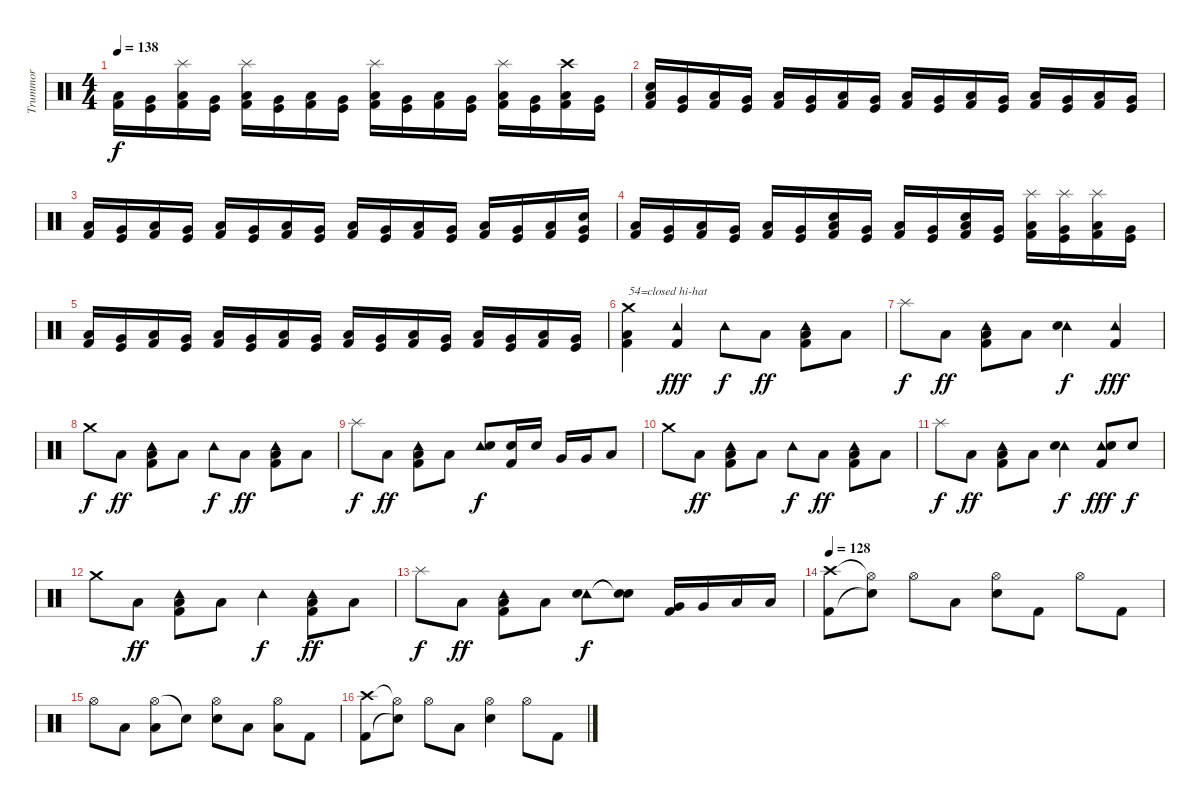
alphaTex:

\track ("Trummor" "Trummor") {instrument percussion}
\staff {score}
\articulation defaults
\ts (4 4)
\tempo 138
\clef neutral
\ks c
("Low Floor Tom (hit)" "Kick (hit) 2").16{dy f} ("Very Low Tom (hit)" "Kick (hit)").16 ("Splash (hit)" "Low Floor Tom (hit)" "Kick (hit) 2").16 ("Very Low Tom (hit)" "Kick (hit)").16 ("Splash (hit)" "Low Floor Tom (hit)" "Kick (hit) 2").16 ("Very Low Tom (hit)" "Kick (hit)").16 ("Low Floor Tom (hit)" "Kick (hit) 2").16 ("Very Low Tom (hit)" "Kick (hit)").16 ("Splash (hit)" "Low Floor Tom (hit)" "Kick (hit) 2").16 ("Very Low Tom (hit)" "Kick (hit)").16 ("Low Floor Tom (hit)" "Kick (hit) 2").16 ("Very Low Tom (hit)" "Kick (hit)").16 ("Splash (hit)" "Low Floor Tom (hit)" "Kick (hit) 2").16 ("Very Low Tom (hit)" "Kick (hit)").16 ("Crash high (hit)" "Low Floor Tom (hit)" "Kick (hit) 2").16 ("Very Low Tom (hit)" "Kick (hit)").16 |
("Snare (hit) 2" "Low Floor Tom (hit)" "Kick (hit) 2").16 ("Very Low Tom (hit)" "Kick (hit)").16 ("Low Floor Tom (hit)" "Kick (hit) 2").16 ("Very Low Tom (hit)" "Kick (hit)").16 ("Low Floor Tom (hit)" "Kick (hit) 2").16 ("Very Low Tom (hit)" "Kick (hit)").16 ("Low Floor Tom (hit)" "Kick (hit) 2").16 ("Very Low Tom (hit)" "Kick (hit)").16 ("Low Floor Tom (hit)" "Kick (hit) 2").16 ("Very Low Tom (hit)" "Kick (hit)").16 ("Low Floor Tom (hit)" "Kick (hit) 2").16 ("Very Low Tom (hit)" "Kick (hit)").16 ("Low Floor Tom (hit)" "Kick (hit) 2").16 ("Very Low Tom (hit)" "Kick (hit)").16 ("Low Floor Tom (hit)" "Kick (hit) 2").16 ("Very Low Tom (hit)" "Kick (hit)").16 |
("Low Floor Tom (hit)" "Kick (hit) 2").16 ("Very Low Tom (hit)" "Kick (hit)").16 ("Low Floor Tom (hit)" "Kick (hit) 2").16 ("Very Low Tom (hit)" "Kick (hit)").16 ("Low Floor Tom (hit)" "Kick (hit) 2").16 ("Very Low Tom (hit)" "Kick (hit)").16 ("Low Floor Tom (hit)" "Kick (hit) 2").16 ("Very Low Tom (hit)" "Kick (hit)").16 ("Low Floor Tom (hit)" "Kick (hit) 2").16 ("Very Low Tom (hit)" "Kick (hit)").16 ("Low Floor Tom (hit)" "Kick (hit) 2").16 ("Very Low Tom (hit)" "Kick (hit)").16 ("Low Floor Tom (hit)" "Kick (hit) 2").16 ("Very Low Tom (hit)" "Kick (hit)").16 ("Low Floor Tom (hit)" "Kick (hit) 2").16 ("Snare (hit) 2" "Very Low Tom (hit)" "Kick (hit)").16 |
("Low Floor Tom (hit)" "Kick (hit) 2").16 ("Very Low Tom (hit)" "Kick (hit)").16 ("Low Floor Tom (hit)" "Kick (hit) 2").16 ("Very Low Tom (hit)" "Kick (hit)").16 ("Low Floor Tom (hit)" "Kick (hit) 2").16 ("Very Low Tom (hit)" "Kick (hit)").16 ("Snare (hit) 2" "Low Floor Tom (hit)" "Kick (hit) 2").16 ("Very Low Tom (hit)" "Kick (hit)").16 ("Low Floor Tom (hit)" "Kick (hit) 2").16 ("Very Low Tom (hit)" "Kick (hit)").16 ("Snare (hit) 2" "Low Floor Tom (hit)" "Kick (hit) 2").16 ("Very Low Tom (hit)" "Kick (hit)").16 ("Splash (hit)" "Low Floor Tom (hit)" "Kick (hit) 2").16 ("Splash (hit)" "Very Low Tom (hit)" "Kick (hit)").16 ("Splash (hit)" "Low Floor Tom (hit)" "Kick (hit) 2").16 ("Very Low Tom (hit)" "Kick (hit)").16 |
("Low Floor Tom (hit)" "Kick (hit) 2").16 ("Very Low Tom (hit)" "Kick (hit)").16 ("Low Floor Tom (hit)" "Kick (hit) 2").16 ("Very Low Tom (hit)" "Kick (hit)").16 ("Low Floor Tom (hit)" "Kick (hit) 2").16 ("Very Low Tom (hit)" "Kick (hit)").16 ("Low Floor Tom (hit)" "Kick (hit) 2").16 ("Very Low Tom (hit)" "Kick (hit)").16 ("Low Floor Tom (hit)" "Kick (hit) 2").16 ("Very Low Tom (hit)" "Kick (hit)").16 ("Low Floor Tom (hit)" "Kick (hit) 2").16 ("Very Low Tom (hit)" "Kick (hit)").16 ("Low Floor Tom (hit)" "Kick (hit) 2").16 ("Very Low Tom (hit)" "Kick (hit)").16 ("Low Floor Tom (hit)" "Kick (hit) 2").16 ("Very Low Tom (hit)" "Kick (hit)").16 |
("Crash medium (hit)" "Low Floor Tom (hit)" "Kick (hit) 2").4{txt "54=closed hi-hat"} ("Tambourine (hit)" "Kick (hit) 2").4{dy fff} "Tambourine (hit)".8{dy f} "Low Floor Tom (hit)".8{dy ff} ("Tambourine (hit)" "Kick (hit) 2" "Low Floor Tom (hit)").8 "Low Floor Tom (hit)".8 |
"Splash (hit)".8{dy f} "Low Floor Tom (hit)".8{dy ff} ("Tambourine (hit)" "Kick (hit) 2" "Low Floor Tom (hit)").8 "Low Floor Tom (hit)".8 ("Tambourine (hit)" "Snare (hit) 2").4{dy f} ("Tambourine (hit)" "Kick (hit) 2").4{dy fff} |
"Crash medium (hit)".8{dy f} "Low Floor Tom (hit)".8{dy ff} ("Tambourine (hit)" "Kick (hit) 2" "Low Floor Tom (hit)").8 "Low Floor Tom (hit)".8 "Tambourine (hit)".8{dy f} "Low Floor Tom (hit)".8{dy ff} ("Tambourine (hit)" "Kick (hit) 2" "Low Floor Tom (hit)").8 "Low Floor Tom (hit)".8 |
"Splash (hit)".8{dy f} "Low Floor Tom (hit)".8{dy ff} ("Tambourine (hit)" "Kick (hit) 2" "Low Floor Tom (hit)").8 "Low Floor Tom (hit)".8 ("Tambourine (hit)" "Snare (hit) 2").8{dy f} ("Snare (hit) 2" "Kick (hit) 2").16 "Snare (hit) 2".16 "Very Low Tom (hit)".16 "Very Low Tom (hit)".16 "Low Tom (hit)".8 |
"Crash medium (hit)".8 "Low Floor Tom (hit)".8{dy ff} ("Tambourine (hit)" "Kick (hit) 2" "Low Floor Tom (hit)").8 "Low Floor Tom (hit)".8 "Tambourine (hit)".8{dy f} "Low Floor Tom (hit)".8{dy ff} ("Tambourine (hit)" "Kick (hit) 2" "Low Floor Tom (hit)").8 "Low Floor Tom (hit)".8 |
"Splash (hit)".8{dy f} "Low Floor Tom (hit)".8{dy ff} ("Tambourine (hit)" "Kick (hit) 2" "Low Floor Tom (hit)").8 "Low Floor Tom (hit)".8 ("Tambourine (hit)" "Snare (hit) 2").4{dy f} ("Tambourine (hit)" "Snare (hit) 2" "Kick (hit) 2").8{dy fff} "Snare (hit) 2".8{dy f} |
"Crash medium (hit)".8 "Low Floor Tom (hit)".8{dy ff} ("Tambourine (hit)" "Kick (hit) 2" "Low Floor Tom (hit)").8 "Low Floor Tom (hit)".8 "Tambourine (hit)".4{dy f} ("Tambourine (hit)" "Kick (hit) 2" "Low Floor Tom (hit)").8{dy ff} "Low Floor Tom (hit)".8 |
"Splash (hit)".8{dy f} "Low Floor Tom (hit)".8{dy ff} ("Tambourine (hit)" "Kick (hit) 2" "Low Floor Tom (hit)").8 "Low Floor Tom (hit)".8 ("Tambourine (hit)" "Snare (hit) 2").8{dy f} ("Snare (hit)"{t} "Snare (hit)"{t}).8 ("Very Low Tom (hit)" "Kick (hit) 2").16 "Very Low Tom (hit)".16 "Low Tom (hit)".16 "Low Tom (hit)".16 |
\tempo 128
("Crash high (hit)" "Kick (hit) 2").8 ("Hi-Hat (open)"{t} "Snare (hit)"{t}).8 "Hi-Hat (open)".8 "Low Floor Tom (hit)".8 ("Hi-Hat (open)" "Snare (hit) 2").8 "Kick (hit) 2".8 "Hi-Hat (open)".8 "Kick (hit) 2".8 |
"Hi-Hat (open)".8 "Low Floor Tom (hit)".8 ("Hi-Hat (open)" "Low Floor Tom (hit)").8 "Snare (hit)"{t}.8 ("Hi-Hat (open)" "Snare (hit) 2").8 "Low Floor Tom (hit)".8 ("Hi-Hat (open)" "Low Floor Tom (hit)").8 "Kick (hit) 2".8 |
("Crash high (hit)" "Kick (hit) 2").8 ("Hi-Hat (open)"{t} "Snare (hit)"{t}).8 "Hi-Hat (open)".8 "Low Floor Tom (hit)".8 ("Hi-Hat (open)" "Snare (hit) 2").4 "Hi-Hat (open)".8 "Kick (hit) 2".8
